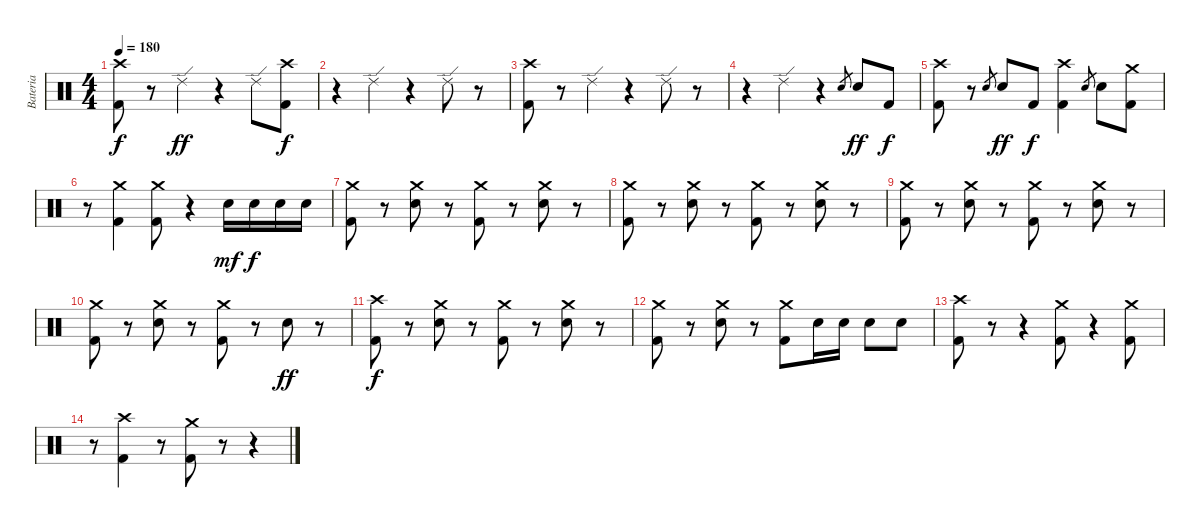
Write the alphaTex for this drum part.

\track ("Bateria" "Bateria") {instrument percussion}
\staff {score}
\articulation defaults
\ts (4 4)
\tempo 180
\clef neutral
\ks c
("Crash high (hit)" "Kick (hit) 2").8{dy f} r.8 "Ride (edge) 2".4{dy ff} r.4 "Ride (edge) 2".8 ("Crash high (hit)" "Kick (hit) 2").8{dy f} |
r.4 "Ride (edge) 2".4 r.4 "Ride (edge) 2".8 r.8 |
("Crash high (hit)" "Kick (hit) 2").8 r.8 "Ride (edge) 2".4 r.4 "Ride (edge) 2".8 r.8 |
r.4 "Ride (edge) 2".4 r.4 "Electric Snare (hit)".8{gr} "Electric Snare (hit)".8{dy ff} "Kick (hit) 2".8{dy f} |
("Crash high (hit)" "Kick (hit) 2").8 r.8 "Electric Snare (hit)".8{gr} "Electric Snare (hit)".8{dy ff} "Kick (hit) 2".8{dy f} ("Crash high (hit)" "Kick (hit) 2").4 "Electric Snare (hit)".8{gr} "Electric Snare (hit)".8 ("Crash medium (hit)" "Kick (hit) 2").8 |
r.8 ("Crash medium (hit)" "Kick (hit) 2").4 ("Crash medium (hit)" "Kick (hit) 2").8 r.4 "Electric Snare (hit)".16{dy mf} "Electric Snare (hit)".16{dy f} "Electric Snare (hit)".16 "Electric Snare (hit)".16 |
("Crash medium (hit)" "Kick (hit) 2").8 r.8 ("Crash medium (hit)" "Electric Snare (hit)").8 r.8 ("Crash medium (hit)" "Kick (hit) 2").8 r.8 ("Crash medium (hit)" "Electric Snare (hit)").8 r.8 |
("Crash medium (hit)" "Kick (hit) 2").8 r.8 ("Crash medium (hit)" "Electric Snare (hit)").8 r.8 ("Crash medium (hit)" "Kick (hit) 2").8 r.8 ("Crash medium (hit)" "Electric Snare (hit)").8 r.8 |
("Crash medium (hit)" "Kick (hit) 2").8 r.8 ("Crash medium (hit)" "Electric Snare (hit)").8 r.8 ("Crash medium (hit)" "Kick (hit) 2").8 r.8 ("Crash medium (hit)" "Electric Snare (hit)").8 r.8 |
("Crash medium (hit)" "Kick (hit) 2").8 r.8 ("Crash medium (hit)" "Electric Snare (hit)").8 r.8 ("Crash medium (hit)" "Kick (hit) 2").8 r.8 "Electric Snare (hit)".8{dy ff} r.8 |
("Crash high (hit)" "Kick (hit) 2").8{dy f} r.8 ("Crash medium (hit)" "Electric Snare (hit)").8 r.8 ("Crash medium (hit)" "Kick (hit) 2").8 r.8 ("Crash medium (hit)" "Electric Snare (hit)").8 r.8 |
("Crash medium (hit)" "Kick (hit) 2").8 r.8 ("Crash medium (hit)" "Electric Snare (hit)").8 r.8 ("Crash medium (hit)" "Kick (hit) 2").8 "Electric Snare (hit)".16 "Electric Snare (hit)".16 "Electric Snare (hit)".8 "Electric Snare (hit)".8 |
("Crash high (hit)" "Kick (hit) 2").8 r.8 r.4 ("Crash medium (hit)" "Kick (hit) 2").8 r.4 ("Crash medium (hit)" "Kick (hit) 2").8 |
r.8 ("Crash high (hit)" "Kick (hit) 2").4 r.8 ("Crash medium (hit)" "Kick (hit) 2").8 r.8 r.4
